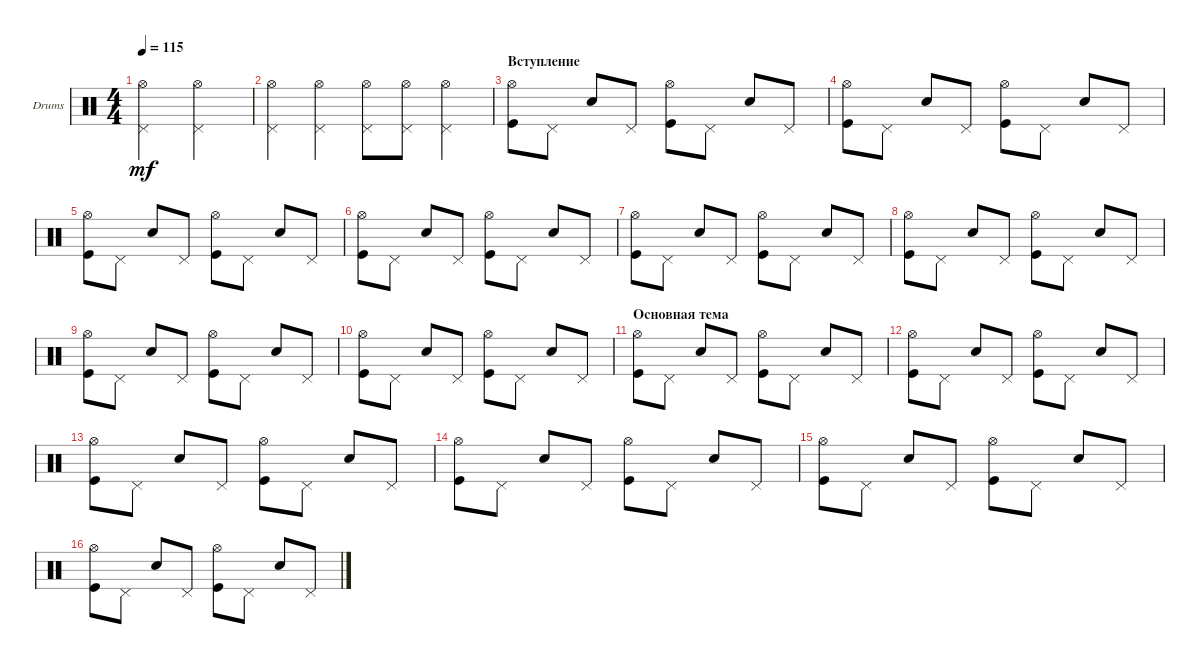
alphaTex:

\defaultSystemsLayout 4
\bracketExtendMode groupsimilarinstruments
\firstSystemTrackNameOrientation horizontal
\otherSystemsTrackNameOrientation horizontal
\track ("Е.Кулаков Ударные" "Drums") {instrument percussion}
\staff {score}
\articulation defaults
\ts (4 4)
\tempo 115
\clef neutral
\ks c
("Hi-Hat (open)" "Pedal Hi-Hat (hit)").2{dy mf} ("Hi-Hat (open)" "Pedal Hi-Hat (hit)").2 |
("Hi-Hat (open)" "Pedal Hi-Hat (hit)").4 ("Hi-Hat (open)" "Pedal Hi-Hat (hit)").4 ("Hi-Hat (open)" "Pedal Hi-Hat (hit)").8 ("Hi-Hat (open)" "Pedal Hi-Hat (hit)").8 ("Hi-Hat (open)" "Pedal Hi-Hat (hit)").4 |
\section ("" "Вступление")
\scale
0.472222 ("Kick (hit)" "Hi-Hat (open)").8 "Pedal Hi-Hat (hit)".8 "Snare (hit) 2".8 "Pedal Hi-Hat (hit)".8 ("Kick (hit)" "Hi-Hat (open)").8 "Pedal Hi-Hat (hit)".8 "Snare (hit) 2".8 "Pedal Hi-Hat (hit)".8 |
\scale
0.263889 ("Kick (hit)" "Hi-Hat (open)").8 "Pedal Hi-Hat (hit)".8 "Snare (hit) 2".8 "Pedal Hi-Hat (hit)".8 ("Kick (hit)" "Hi-Hat (open)").8 "Pedal Hi-Hat (hit)".8 "Snare (hit) 2".8 "Pedal Hi-Hat (hit)".8 |
\scale
0.263889 ("Kick (hit)" "Hi-Hat (open)").8 "Pedal Hi-Hat (hit)".8 "Snare (hit) 2".8 "Pedal Hi-Hat (hit)".8 ("Kick (hit)" "Hi-Hat (open)").8 "Pedal Hi-Hat (hit)".8 "Snare (hit) 2".8 "Pedal Hi-Hat (hit)".8 |
\scale
0.333333 ("Kick (hit)" "Hi-Hat (open)").8 "Pedal Hi-Hat (hit)".8 "Snare (hit) 2".8 "Pedal Hi-Hat (hit)".8 ("Kick (hit)" "Hi-Hat (open)").8 "Pedal Hi-Hat (hit)".8 "Snare (hit) 2".8 "Pedal Hi-Hat (hit)".8 |
\scale
0.333333 ("Kick (hit)" "Hi-Hat (open)").8 "Pedal Hi-Hat (hit)".8 "Snare (hit) 2".8 "Pedal Hi-Hat (hit)".8 ("Kick (hit)" "Hi-Hat (open)").8 "Pedal Hi-Hat (hit)".8 "Snare (hit) 2".8 "Pedal Hi-Hat (hit)".8 |
\scale
0.333333 ("Kick (hit)" "Hi-Hat (open)").8 "Pedal Hi-Hat (hit)".8 "Snare (hit) 2".8 "Pedal Hi-Hat (hit)".8 ("Kick (hit)" "Hi-Hat (open)").8 "Pedal Hi-Hat (hit)".8 "Snare (hit) 2".8 "Pedal Hi-Hat (hit)".8 |
\scale
0.333333 ("Kick (hit)" "Hi-Hat (open)").8 "Pedal Hi-Hat (hit)".8 "Snare (hit) 2".8 "Pedal Hi-Hat (hit)".8 ("Kick (hit)" "Hi-Hat (open)").8 "Pedal Hi-Hat (hit)".8 "Snare (hit) 2".8 "Pedal Hi-Hat (hit)".8 |
\scale
0.333333 ("Kick (hit)" "Hi-Hat (open)").8 "Pedal Hi-Hat (hit)".8 "Snare (hit) 2".8 "Pedal Hi-Hat (hit)".8 ("Kick (hit)" "Hi-Hat (open)").8 "Pedal Hi-Hat (hit)".8 "Snare (hit) 2".8 "Pedal Hi-Hat (hit)".8 |
\section ("" "Основная тема")
\scale
0.333333 ("Kick (hit)" "Hi-Hat (open)").8 "Pedal Hi-Hat (hit)".8 "Snare (hit) 2".8 "Pedal Hi-Hat (hit)".8 ("Kick (hit)" "Hi-Hat (open)").8 "Pedal Hi-Hat (hit)".8 "Snare (hit) 2".8 "Pedal Hi-Hat (hit)".8 |
\scale
0.333333 ("Kick (hit)" "Hi-Hat (open)").8 "Pedal Hi-Hat (hit)".8 "Snare (hit) 2".8 "Pedal Hi-Hat (hit)".8 ("Kick (hit)" "Hi-Hat (open)").8 "Pedal Hi-Hat (hit)".8 "Snare (hit) 2".8 "Pedal Hi-Hat (hit)".8 |
\scale
0.333333 ("Kick (hit)" "Hi-Hat (open)").8 "Pedal Hi-Hat (hit)".8 "Snare (hit) 2".8 "Pedal Hi-Hat (hit)".8 ("Kick (hit)" "Hi-Hat (open)").8 "Pedal Hi-Hat (hit)".8 "Snare (hit) 2".8 "Pedal Hi-Hat (hit)".8 |
\scale
0.333333 ("Kick (hit)" "Hi-Hat (open)").8 "Pedal Hi-Hat (hit)".8 "Snare (hit) 2".8 "Pedal Hi-Hat (hit)".8 ("Kick (hit)" "Hi-Hat (open)").8 "Pedal Hi-Hat (hit)".8 "Snare (hit) 2".8 "Pedal Hi-Hat (hit)".8 |
\scale
0.333333 ("Kick (hit)" "Hi-Hat (open)").8 "Pedal Hi-Hat (hit)".8 "Snare (hit) 2".8 "Pedal Hi-Hat (hit)".8 ("Kick (hit)" "Hi-Hat (open)").8 "Pedal Hi-Hat (hit)".8 "Snare (hit) 2".8 "Pedal Hi-Hat (hit)".8 |
("Kick (hit)" "Hi-Hat (open)").8 "Pedal Hi-Hat (hit)".8 "Snare (hit) 2".8 "Pedal Hi-Hat (hit)".8 ("Kick (hit)" "Hi-Hat (open)").8 "Pedal Hi-Hat (hit)".8 "Snare (hit) 2".8 "Pedal Hi-Hat (hit)".8
